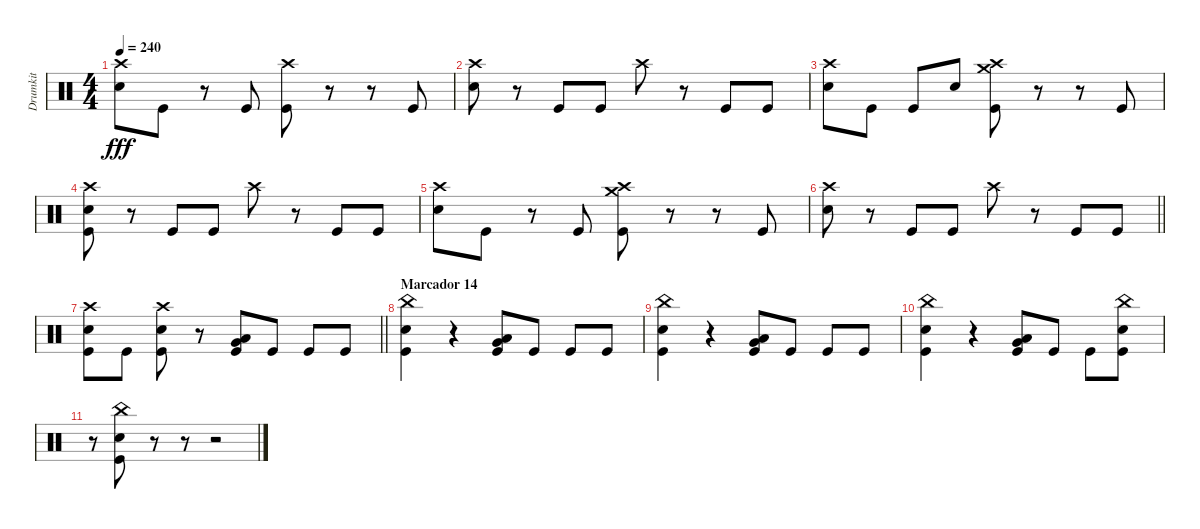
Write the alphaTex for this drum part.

\track ("Drumkit" "Drumkit") {instrument percussion}
\staff {score}
\articulation defaults
\ts (4 4)
\tempo 240
\clef neutral
\ks c
("Crash high (hit)" "Snare (hit) 2").8{dy fff} "Kick (hit)".8 r.8 "Kick (hit)".8 ("Crash high (hit)" "Kick (hit)").8 r.8 r.8 "Kick (hit)".8 |
("Crash high (hit)" "Snare (hit) 2").8 r.8 "Kick (hit)".8 "Kick (hit)".8 "Crash high (hit)".8 r.8 "Kick (hit)".8 "Kick (hit)".8 |
("Crash high (hit)" "Snare (hit) 2").8 "Kick (hit)".8 "Kick (hit)".8 "Snare (hit) 2".8 ("Crash high (hit)" "Crash medium (hit)" "Kick (hit)").8 r.8 r.8 "Kick (hit)".8 |
("Crash high (hit)" "Snare (hit) 2" "Kick (hit)").8 r.8 "Kick (hit)".8 "Kick (hit)".8 "Crash high (hit)".8 r.8 "Kick (hit)".8 "Kick (hit)".8 |
("Crash high (hit)" "Snare (hit) 2").8 "Kick (hit)".8 r.8 "Kick (hit)".8 ("Crash high (hit)" "Crash medium (hit)" "Kick (hit)").8 r.8 r.8 "Kick (hit)".8 |
\barLineRight lightlight
("Crash high (hit)" "Snare (hit) 2").8 r.8 "Kick (hit)".8 "Kick (hit)".8 "Crash high (hit)".8 r.8 "Kick (hit)".8 "Kick (hit)".8 |
\barLineRight lightlight
("Crash high (hit)" "Snare (hit) 2" "Kick (hit)").8 "Kick (hit)".8 ("Crash high (hit)" "Snare (hit) 2" "Kick (hit)").8 r.8 ("Low Tom (hit)" "Very Low Tom (hit)" "Kick (hit)").8 "Kick (hit)".8 "Kick (hit)".8 "Kick (hit)".8 |
\section ("" "Marcador 14")
("China (hit)" "Snare (hit) 2" "Kick (hit)").4 r.4 ("Low Tom (hit)" "Very Low Tom (hit)" "Kick (hit)").8 "Kick (hit)".8 "Kick (hit)".8 "Kick (hit)".8 |
("China (hit)" "Snare (hit) 2" "Kick (hit)").4 r.4 ("Low Tom (hit)" "Very Low Tom (hit)" "Kick (hit)").8 "Kick (hit)".8 "Kick (hit)".8 "Kick (hit)".8 |
("China (hit)" "Snare (hit) 2" "Kick (hit)").4 r.4 ("Low Tom (hit)" "Very Low Tom (hit)" "Kick (hit)").8 "Kick (hit)".8 "Kick (hit)".8 ("China (hit)" "Snare (hit) 2" "Kick (hit)").8 |
r.8 ("China (hit)" "Snare (hit) 2" "Kick (hit)").8 r.8 r.8 r.2
